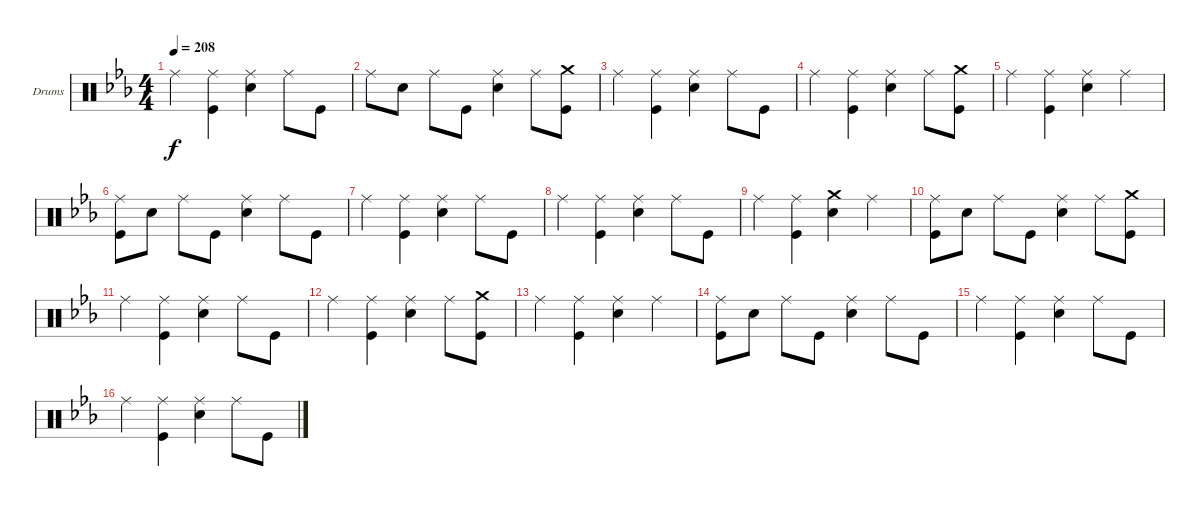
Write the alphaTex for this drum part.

\defaultSystemsLayout 4
\bracketExtendMode groupsimilarinstruments
\firstSystemTrackNameOrientation horizontal
\otherSystemsTrackNameOrientation horizontal
\track ("Drumkit" "Drums") {instrument percussion}
\staff {score}
\articulation defaults
\ts (4 4)
\tempo 208
\clef neutral
\ks eb "Ride (middle)".4{dy f}
("Ride (middle)" "Kick (hit)").4 ("Ride (middle)" "Snare (hit) 2").4 "Ride (middle)".8 "Kick (hit)".8 |
"Ride (middle)".8 "Snare (hit) 2".8 "Ride (middle)".8 "Kick (hit)".8 ("Ride (middle)" "Snare (hit) 2").4 "Ride (middle)".8 ("Crash medium (hit)" "Kick (hit)").8 |
"Ride (middle)".4 ("Ride (middle)" "Kick (hit)").4 ("Ride (middle)" "Snare (hit) 2").4 "Ride (middle)".8 "Kick (hit)".8 |
"Ride (middle)".4 ("Ride (middle)" "Kick (hit)").4 ("Ride (middle)" "Snare (hit) 2").4 "Ride (middle)".8 ("Crash medium (hit)" "Kick (hit)").8 |
"Ride (middle)".4 ("Ride (middle)" "Kick (hit)").4 ("Ride (middle)" "Snare (hit) 2").4 "Ride (middle)".4 |
("Ride (middle)" "Kick (hit)").8 "Snare (hit) 2".8 "Ride (middle)".8 "Kick (hit)".8 ("Ride (middle)" "Snare (hit) 2").4 "Ride (middle)".8 "Kick (hit)".8 |
"Ride (middle)".4 ("Ride (middle)" "Kick (hit)").4 ("Ride (middle)" "Snare (hit) 2").4 "Ride (middle)".8 "Kick (hit)".8 |
"Ride (middle)".4 ("Ride (middle)" "Kick (hit)").4 ("Ride (middle)" "Snare (hit) 2").4 "Ride (middle)".8 "Kick (hit)".8 |
"Ride (middle)".4 ("Ride (middle)" "Kick (hit)").4 ("Crash medium (hit)" "Snare (hit) 2").4 "Ride (middle)".4 |
("Ride (middle)" "Kick (hit)").8 "Snare (hit) 2".8 "Ride (middle)".8 "Kick (hit)".8 ("Ride (middle)" "Snare (hit) 2").4 "Ride (middle)".8 ("Crash medium (hit)" "Kick (hit)").8 |
"Ride (middle)".4 ("Ride (middle)" "Kick (hit)").4 ("Ride (middle)" "Snare (hit) 2").4 "Ride (middle)".8 "Kick (hit)".8 |
"Ride (middle)".4 ("Ride (middle)" "Kick (hit)").4 ("Ride (middle)" "Snare (hit) 2").4 "Ride (middle)".8 ("Crash medium (hit)" "Kick (hit)").8 |
"Ride (middle)".4 ("Ride (middle)" "Kick (hit)").4 ("Ride (middle)" "Snare (hit) 2").4 "Ride (middle)".4 |
("Ride (middle)" "Kick (hit)").8 "Snare (hit) 2".8 "Ride (middle)".8 "Kick (hit)".8 ("Ride (middle)" "Snare (hit) 2").4 "Ride (middle)".8 "Kick (hit)".8 |
"Ride (middle)".4 ("Ride (middle)" "Kick (hit)").4 ("Ride (middle)" "Snare (hit) 2").4 "Ride (middle)".8 "Kick (hit)".8 |
"Ride (middle)".4 ("Ride (middle)" "Kick (hit)").4 ("Ride (middle)" "Snare (hit) 2").4 "Ride (middle)".8 "Kick (hit)".8
